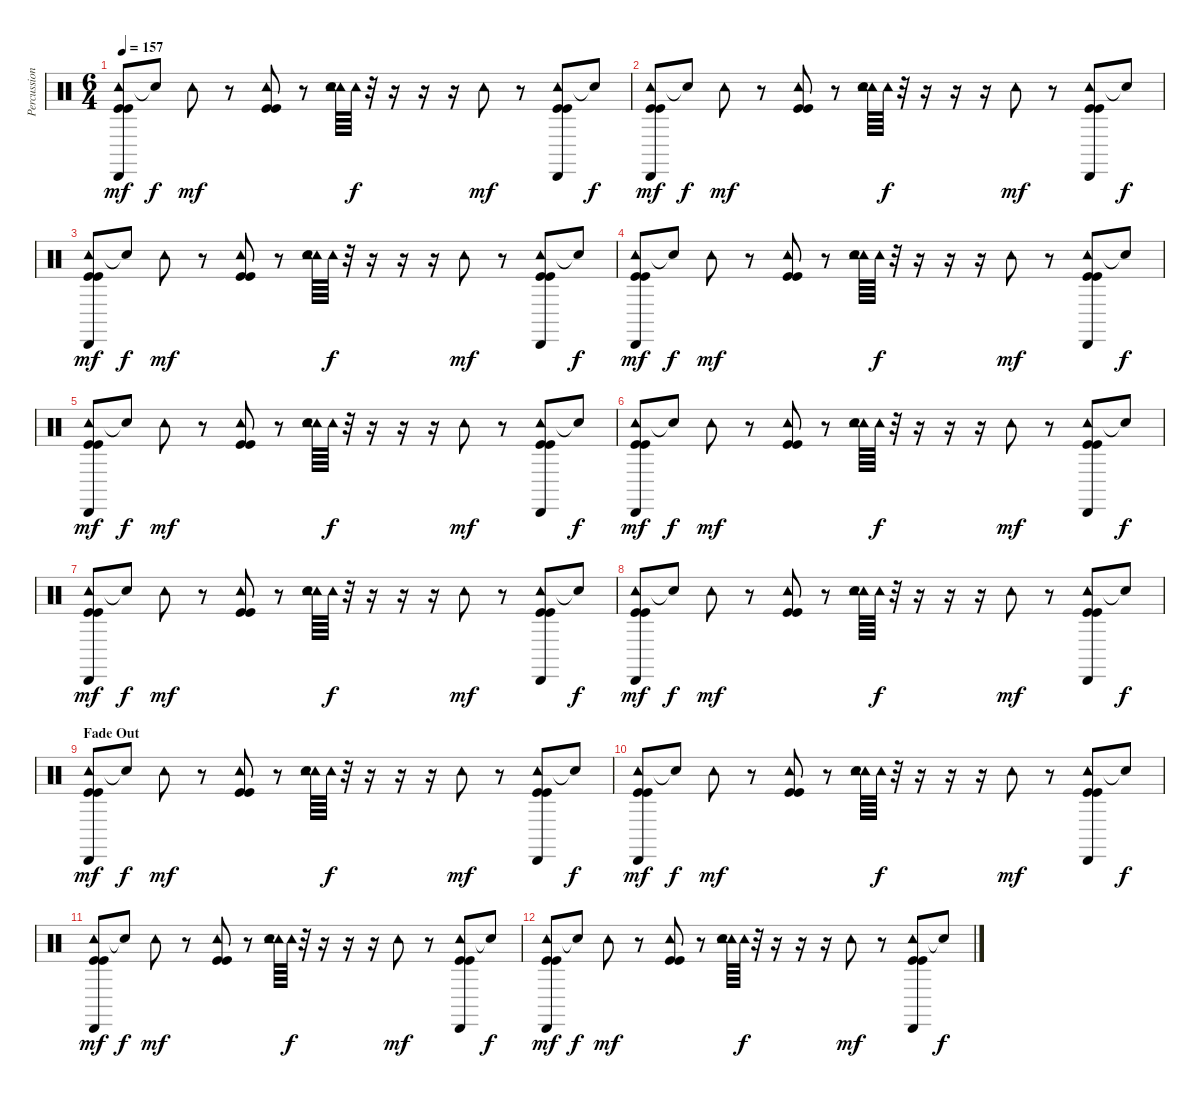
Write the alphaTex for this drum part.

\track ("Percussions" "Percussion") {instrument percussion}
\staff {score}
\articulation defaults
\ts (6 4)
\tempo 157
\clef neutral
\ks c
("Tambourine (hit)" "Cabasa (hit)" "Kick (hit)" "Kick (hit)").8{dy mf} "Snare (hit)"{t}.8{dy f} "Tambourine (hit)".8{dy mf} r.8 ("Tambourine (hit)" "Kick (hit)" "Kick (hit)").8 r.8 ("Tambourine (hit)" "Tambourine (hit)" "Snare (hit) 2").64 "Tambourine (hit)".64{dy f} r.32 r.16 r.16 r.16 "Tambourine (hit)".8{dy mf} r.8 ("Tambourine (hit)" "Cabasa (hit)" "Kick (hit)" "Kick (hit)").8 "Snare (hit)"{t}.8{dy f} |
("Tambourine (hit)" "Cabasa (hit)" "Kick (hit)" "Kick (hit)").8{dy mf} "Snare (hit)"{t}.8{dy f} "Tambourine (hit)".8{dy mf} r.8 ("Tambourine (hit)" "Kick (hit)" "Kick (hit)").8 r.8 ("Tambourine (hit)" "Tambourine (hit)" "Snare (hit) 2").64 "Tambourine (hit)".64{dy f} r.32 r.16 r.16 r.16 "Tambourine (hit)".8{dy mf} r.8 ("Tambourine (hit)" "Cabasa (hit)" "Kick (hit)" "Kick (hit)").8 "Snare (hit)"{t}.8{dy f} |
("Tambourine (hit)" "Cabasa (hit)" "Kick (hit)" "Kick (hit)").8{dy mf} "Snare (hit)"{t}.8{dy f} "Tambourine (hit)".8{dy mf} r.8 ("Tambourine (hit)" "Kick (hit)" "Kick (hit)").8 r.8 ("Tambourine (hit)" "Tambourine (hit)" "Snare (hit) 2").64 "Tambourine (hit)".64{dy f} r.32 r.16 r.16 r.16 "Tambourine (hit)".8{dy mf} r.8 ("Tambourine (hit)" "Cabasa (hit)" "Kick (hit)" "Kick (hit)").8 "Snare (hit)"{t}.8{dy f} |
("Tambourine (hit)" "Cabasa (hit)" "Kick (hit)" "Kick (hit)").8{dy mf} "Snare (hit)"{t}.8{dy f} "Tambourine (hit)".8{dy mf} r.8 ("Tambourine (hit)" "Kick (hit)" "Kick (hit)").8 r.8 ("Tambourine (hit)" "Tambourine (hit)" "Snare (hit) 2").64 "Tambourine (hit)".64{dy f} r.32 r.16 r.16 r.16 "Tambourine (hit)".8{dy mf} r.8 ("Tambourine (hit)" "Cabasa (hit)" "Kick (hit)" "Kick (hit)").8 "Snare (hit)"{t}.8{dy f} |
("Tambourine (hit)" "Cabasa (hit)" "Kick (hit)" "Kick (hit)").8{dy mf} "Snare (hit)"{t}.8{dy f} "Tambourine (hit)".8{dy mf} r.8 ("Tambourine (hit)" "Kick (hit)" "Kick (hit)").8 r.8 ("Tambourine (hit)" "Tambourine (hit)" "Snare (hit) 2").64 "Tambourine (hit)".64{dy f} r.32 r.16 r.16 r.16 "Tambourine (hit)".8{dy mf} r.8 ("Tambourine (hit)" "Cabasa (hit)" "Kick (hit)" "Kick (hit)").8 "Snare (hit)"{t}.8{dy f} |
("Tambourine (hit)" "Cabasa (hit)" "Kick (hit)" "Kick (hit)").8{dy mf} "Snare (hit)"{t}.8{dy f} "Tambourine (hit)".8{dy mf} r.8 ("Tambourine (hit)" "Kick (hit)" "Kick (hit)").8 r.8 ("Tambourine (hit)" "Tambourine (hit)" "Snare (hit) 2").64 "Tambourine (hit)".64{dy f} r.32 r.16 r.16 r.16 "Tambourine (hit)".8{dy mf} r.8 ("Tambourine (hit)" "Cabasa (hit)" "Kick (hit)" "Kick (hit)").8 "Snare (hit)"{t}.8{dy f} |
("Tambourine (hit)" "Cabasa (hit)" "Kick (hit)" "Kick (hit)").8{dy mf} "Snare (hit)"{t}.8{dy f} "Tambourine (hit)".8{dy mf} r.8 ("Tambourine (hit)" "Kick (hit)" "Kick (hit)").8 r.8 ("Tambourine (hit)" "Tambourine (hit)" "Snare (hit) 2").64 "Tambourine (hit)".64{dy f} r.32 r.16 r.16 r.16 "Tambourine (hit)".8{dy mf} r.8 ("Tambourine (hit)" "Cabasa (hit)" "Kick (hit)" "Kick (hit)").8 "Snare (hit)"{t}.8{dy f} |
("Tambourine (hit)" "Cabasa (hit)" "Kick (hit)" "Kick (hit)").8{dy mf} "Snare (hit)"{t}.8{dy f} "Tambourine (hit)".8{dy mf} r.8 ("Tambourine (hit)" "Kick (hit)" "Kick (hit)").8 r.8 ("Tambourine (hit)" "Tambourine (hit)" "Snare (hit) 2").64 "Tambourine (hit)".64{dy f} r.32 r.16 r.16 r.16 "Tambourine (hit)".8{dy mf} r.8 ("Tambourine (hit)" "Cabasa (hit)" "Kick (hit)" "Kick (hit)").8 "Snare (hit)"{t}.8{dy f} |
\section ("" "Fade Out")
("Tambourine (hit)" "Cabasa (hit)" "Kick (hit)" "Kick (hit)").8{dy mf} "Snare (hit)"{t}.8{dy f} "Tambourine (hit)".8{dy mf} r.8 ("Tambourine (hit)" "Kick (hit)" "Kick (hit)").8 r.8 ("Tambourine (hit)" "Tambourine (hit)" "Snare (hit) 2").64 "Tambourine (hit)".64{dy f} r.32 r.16 r.16 r.16 "Tambourine (hit)".8{dy mf} r.8 ("Tambourine (hit)" "Cabasa (hit)" "Kick (hit)" "Kick (hit)").8 "Snare (hit)"{t}.8{dy f} |
("Tambourine (hit)" "Cabasa (hit)" "Kick (hit)" "Kick (hit)").8{dy mf} "Snare (hit)"{t}.8{dy f} "Tambourine (hit)".8{dy mf} r.8 ("Tambourine (hit)" "Kick (hit)" "Kick (hit)").8 r.8 ("Tambourine (hit)" "Tambourine (hit)" "Snare (hit) 2").64 "Tambourine (hit)".64{dy f} r.32 r.16 r.16 r.16 "Tambourine (hit)".8{dy mf} r.8 ("Tambourine (hit)" "Cabasa (hit)" "Kick (hit)" "Kick (hit)").8 "Snare (hit)"{t}.8{dy f} |
("Tambourine (hit)" "Cabasa (hit)" "Kick (hit)" "Kick (hit)").8{dy mf} "Snare (hit)"{t}.8{dy f} "Tambourine (hit)".8{dy mf} r.8 ("Tambourine (hit)" "Kick (hit)" "Kick (hit)").8 r.8 ("Tambourine (hit)" "Tambourine (hit)" "Snare (hit) 2").64 "Tambourine (hit)".64{dy f} r.32 r.16 r.16 r.16 "Tambourine (hit)".8{dy mf} r.8 ("Tambourine (hit)" "Cabasa (hit)" "Kick (hit)" "Kick (hit)").8 "Snare (hit)"{t}.8{dy f} |
("Tambourine (hit)" "Cabasa (hit)" "Kick (hit)" "Kick (hit)").8{dy mf} "Snare (hit)"{t}.8{dy f} "Tambourine (hit)".8{dy mf} r.8 ("Tambourine (hit)" "Kick (hit)" "Kick (hit)").8 r.8 ("Tambourine (hit)" "Tambourine (hit)" "Snare (hit) 2").64 "Tambourine (hit)".64{dy f} r.32 r.16 r.16 r.16 "Tambourine (hit)".8{dy mf} r.8 ("Tambourine (hit)" "Cabasa (hit)" "Kick (hit)" "Kick (hit)").8 "Snare (hit)"{t}.8{dy f}
